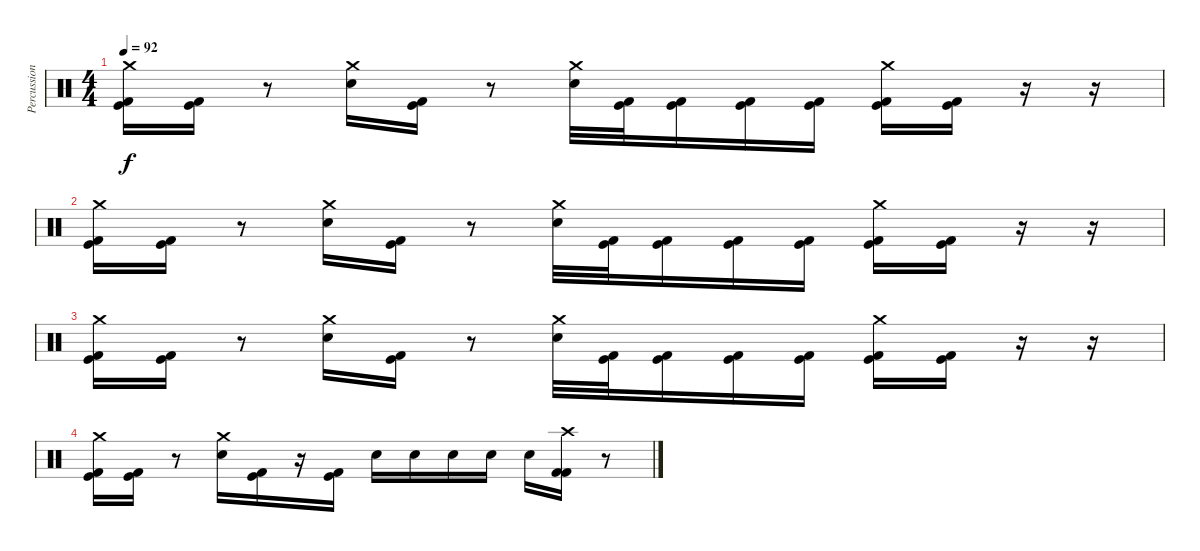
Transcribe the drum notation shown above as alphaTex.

\track ("Percussion" "Percussion") {instrument percussion}
\staff {score}
\articulation defaults
\ts (4 4)
\tempo 92
\clef neutral
\ks c
("Kick (hit) 2" "Kick (hit)" "Crash medium (hit)").16{dy f} ("Kick (hit) 2" "Kick (hit)").16 r.8 ("Electric Snare (hit)" "Crash medium (hit)").16 ("Kick (hit) 2" "Kick (hit)").16 r.8 ("Electric Snare (hit)" "Crash medium (hit)").32 ("Kick (hit) 2" "Kick (hit)").32 ("Kick (hit) 2" "Kick (hit)").16 ("Kick (hit) 2" "Kick (hit)").16 ("Kick (hit) 2" "Kick (hit)").16 ("Kick (hit) 2" "Kick (hit)" "Crash medium (hit)").16 ("Kick (hit) 2" "Kick (hit)").16 r.16 r.16 |
("Kick (hit) 2" "Kick (hit)" "Crash medium (hit)").16 ("Kick (hit) 2" "Kick (hit)").16 r.8 ("Electric Snare (hit)" "Crash medium (hit)").16 ("Kick (hit) 2" "Kick (hit)").16 r.8 ("Electric Snare (hit)" "Crash medium (hit)").32 ("Kick (hit) 2" "Kick (hit)").32 ("Kick (hit) 2" "Kick (hit)").16 ("Kick (hit) 2" "Kick (hit)").16 ("Kick (hit) 2" "Kick (hit)").16 ("Kick (hit) 2" "Kick (hit)" "Crash medium (hit)").16 ("Kick (hit) 2" "Kick (hit)").16 r.16 r.16 |
("Kick (hit) 2" "Kick (hit)" "Crash medium (hit)").16 ("Kick (hit) 2" "Kick (hit)").16 r.8 ("Electric Snare (hit)" "Crash medium (hit)").16 ("Kick (hit) 2" "Kick (hit)").16 r.8 ("Electric Snare (hit)" "Crash medium (hit)").32 ("Kick (hit) 2" "Kick (hit)").32 ("Kick (hit) 2" "Kick (hit)").16 ("Kick (hit) 2" "Kick (hit)").16 ("Kick (hit) 2" "Kick (hit)").16 ("Kick (hit) 2" "Kick (hit)" "Crash medium (hit)").16 ("Kick (hit) 2" "Kick (hit)").16 r.16 r.16 |
("Kick (hit) 2" "Kick (hit)" "Crash medium (hit)").16 ("Kick (hit) 2" "Kick (hit)").16 r.8 ("Electric Snare (hit)" "Crash medium (hit)").16 ("Kick (hit) 2" "Kick (hit)").16 r.16 ("Kick (hit) 2" "Kick (hit)").16 "Electric Snare (hit)".16 "Electric Snare (hit)".16 "Electric Snare (hit)".16 "Electric Snare (hit)".16 "Electric Snare (hit)".16 ("Kick (hit) 2" "Kick (hit) 2" "Crash high (hit)").16 r.8
